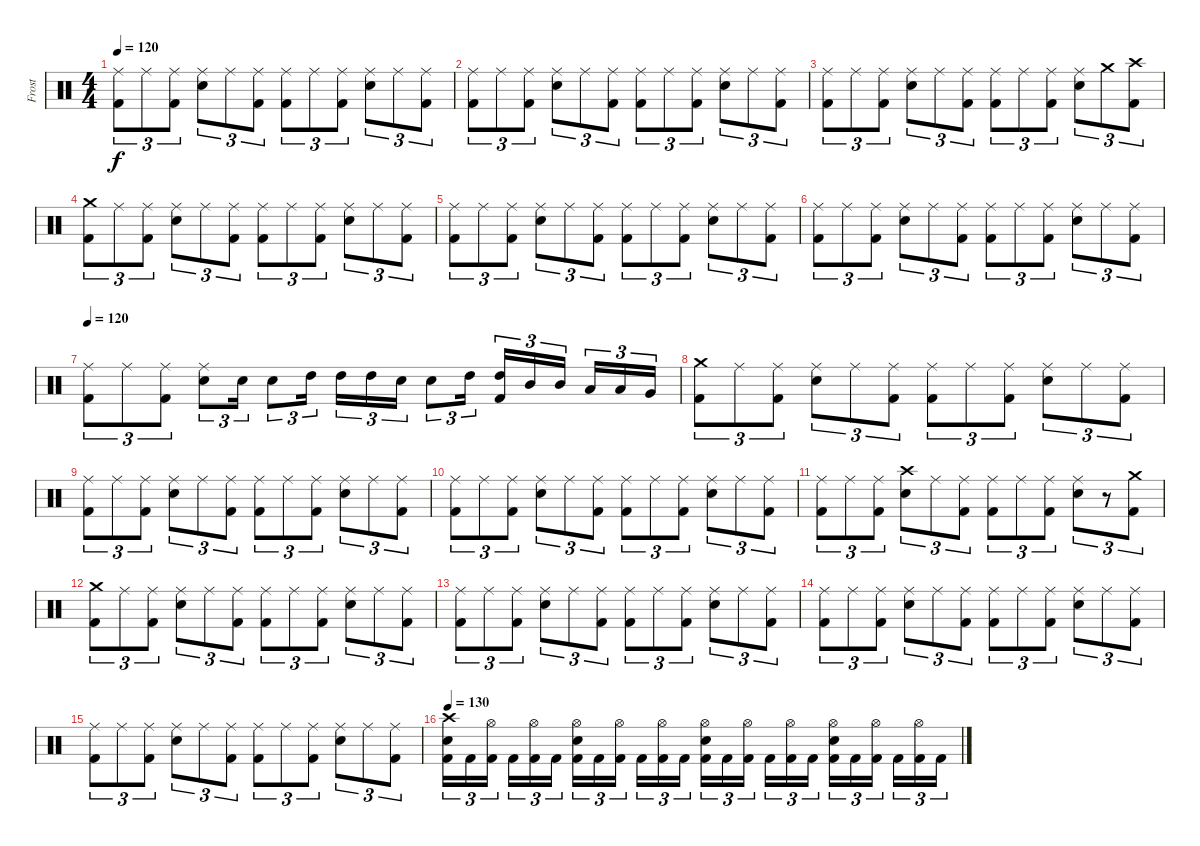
\track ("Frost" "Frost") {instrument percussion}
\staff {score}
\articulation defaults
\ts (4 4)
\tempo 120
\clef neutral
\ks c
("Ride (middle)" "Kick (hit) 2").8{tu (3 2) dy f} "Ride (middle)".8{tu (3 2)} ("Ride (middle)" "Kick (hit) 2").8{tu (3 2)} ("Ride (middle)" "Electric Snare (hit)").8{tu (3 2)} "Ride (middle)".8{tu (3 2)} ("Ride (middle)" "Kick (hit) 2").8{tu (3 2)} ("Ride (middle)" "Kick (hit) 2").8{tu (3 2)} "Ride (middle)".8{tu (3 2)} ("Ride (middle)" "Kick (hit) 2").8{tu (3 2)} ("Ride (middle)" "Electric Snare (hit)").8{tu (3 2)} "Ride (middle)".8{tu (3 2)} ("Ride (middle)" "Kick (hit) 2").8{tu (3 2)} |
("Ride (middle)" "Kick (hit) 2").8{tu (3 2)} "Ride (middle)".8{tu (3 2)} ("Ride (middle)" "Kick (hit) 2").8{tu (3 2)} ("Ride (middle)" "Electric Snare (hit)").8{tu (3 2)} "Ride (middle)".8{tu (3 2)} ("Ride (middle)" "Kick (hit) 2").8{tu (3 2)} ("Ride (middle)" "Kick (hit) 2").8{tu (3 2)} "Ride (middle)".8{tu (3 2)} ("Ride (middle)" "Kick (hit) 2").8{tu (3 2)} ("Ride (middle)" "Electric Snare (hit)").8{tu (3 2)} "Ride (middle)".8{tu (3 2)} ("Ride (middle)" "Kick (hit) 2").8{tu (3 2)} |
("Ride (middle)" "Kick (hit) 2").8{tu (3 2)} "Ride (middle)".8{tu (3 2)} ("Ride (middle)" "Kick (hit) 2").8{tu (3 2)} ("Ride (middle)" "Electric Snare (hit)").8{tu (3 2)} "Ride (middle)".8{tu (3 2)} ("Ride (middle)" "Kick (hit) 2").8{tu (3 2)} ("Ride (middle)" "Kick (hit) 2").8{tu (3 2)} "Ride (middle)".8{tu (3 2)} ("Ride (middle)" "Kick (hit) 2").8{tu (3 2)} ("Ride (middle)" "Electric Snare (hit)").8{tu (3 2)} "Crash medium (hit)".8{tu (3 2)} ("Crash high (hit)" "Kick (hit) 2").8{tu (3 2)} |
("Crash medium (hit)" "Kick (hit) 2").8{tu (3 2)} "Ride (middle)".8{tu (3 2)} ("Ride (middle)" "Kick (hit) 2").8{tu (3 2)} ("Ride (middle)" "Electric Snare (hit)").8{tu (3 2)} "Ride (middle)".8{tu (3 2)} ("Ride (middle)" "Kick (hit) 2").8{tu (3 2)} ("Ride (middle)" "Kick (hit) 2").8{tu (3 2)} "Ride (middle)".8{tu (3 2)} ("Ride (middle)" "Kick (hit) 2").8{tu (3 2)} ("Ride (middle)" "Electric Snare (hit)").8{tu (3 2)} "Ride (middle)".8{tu (3 2)} ("Ride (middle)" "Kick (hit) 2").8{tu (3 2)} |
("Ride (middle)" "Kick (hit) 2").8{tu (3 2)} "Ride (middle)".8{tu (3 2)} ("Ride (middle)" "Kick (hit) 2").8{tu (3 2)} ("Ride (middle)" "Electric Snare (hit)").8{tu (3 2)} "Ride (middle)".8{tu (3 2)} ("Ride (middle)" "Kick (hit) 2").8{tu (3 2)} ("Ride (middle)" "Kick (hit) 2").8{tu (3 2)} "Ride (middle)".8{tu (3 2)} ("Ride (middle)" "Kick (hit) 2").8{tu (3 2)} ("Ride (middle)" "Electric Snare (hit)").8{tu (3 2)} "Ride (middle)".8{tu (3 2)} ("Ride (middle)" "Kick (hit) 2").8{tu (3 2)} |
("Ride (middle)" "Kick (hit) 2").8{tu (3 2)} "Ride (middle)".8{tu (3 2)} ("Ride (middle)" "Kick (hit) 2").8{tu (3 2)} ("Ride (middle)" "Electric Snare (hit)").8{tu (3 2)} "Ride (middle)".8{tu (3 2)} ("Ride (middle)" "Kick (hit) 2").8{tu (3 2)} ("Ride (middle)" "Kick (hit) 2").8{tu (3 2)} "Ride (middle)".8{tu (3 2)} ("Ride (middle)" "Kick (hit) 2").8{tu (3 2)} ("Ride (middle)" "Electric Snare (hit)").8{tu (3 2)} "Ride (middle)".8{tu (3 2)} ("Ride (middle)" "Kick (hit) 2").8{tu (3 2)} |
\tempo 120
("Ride (middle)" "Kick (hit) 2").8{tu (3 2)} "Ride (middle)".8{tu (3 2)} ("Ride (middle)" "Kick (hit) 2").8{tu (3 2)} ("Ride (middle)" "Electric Snare (hit)").8{tu (3 2)} "Electric Snare (hit)".16{tu (3 2)} "Electric Snare (hit)".8{tu (3 2)} "High Tom (hit)".16{tu (3 2)} "High Tom (hit)".16{tu (3 2)} "High Tom (hit)".16{tu (3 2)} "Electric Snare (hit)".16{tu (3 2)} "Electric Snare (hit)".8{tu (3 2)} "High Tom (hit)".16{tu (3 2)} ("High Tom (hit)" "Kick (hit) 2").16{tu (3 2)} "Mid Tom (hit)".16{tu (3 2)} "Mid Tom (hit)".16{tu (3 2)} "Low Tom (hit)".16{tu (3 2)} "Low Tom (hit)".16{tu (3 2)} "Very Low Tom (hit)".16{tu (3 2)} |
("Crash medium (hit)" "Kick (hit) 2").8{tu (3 2)} "Ride (middle)".8{tu (3 2)} ("Ride (middle)" "Kick (hit) 2").8{tu (3 2)} ("Ride (middle)" "Electric Snare (hit)").8{tu (3 2)} "Ride (middle)".8{tu (3 2)} ("Ride (middle)" "Kick (hit) 2").8{tu (3 2)} ("Ride (middle)" "Kick (hit) 2").8{tu (3 2)} "Ride (middle)".8{tu (3 2)} ("Ride (middle)" "Kick (hit) 2").8{tu (3 2)} ("Ride (middle)" "Electric Snare (hit)").8{tu (3 2)} "Ride (middle)".8{tu (3 2)} ("Ride (middle)" "Kick (hit) 2").8{tu (3 2)} |
("Ride (middle)" "Kick (hit) 2").8{tu (3 2)} "Ride (middle)".8{tu (3 2)} ("Ride (middle)" "Kick (hit) 2").8{tu (3 2)} ("Ride (middle)" "Electric Snare (hit)").8{tu (3 2)} "Ride (middle)".8{tu (3 2)} ("Ride (middle)" "Kick (hit) 2").8{tu (3 2)} ("Ride (middle)" "Kick (hit) 2").8{tu (3 2)} "Ride (middle)".8{tu (3 2)} ("Ride (middle)" "Kick (hit) 2").8{tu (3 2)} ("Ride (middle)" "Electric Snare (hit)").8{tu (3 2)} "Ride (middle)".8{tu (3 2)} ("Ride (middle)" "Kick (hit) 2").8{tu (3 2)} |
("Ride (middle)" "Kick (hit) 2").8{tu (3 2)} "Ride (middle)".8{tu (3 2)} ("Ride (middle)" "Kick (hit) 2").8{tu (3 2)} ("Ride (middle)" "Electric Snare (hit)").8{tu (3 2)} "Ride (middle)".8{tu (3 2)} ("Ride (middle)" "Kick (hit) 2").8{tu (3 2)} ("Ride (middle)" "Kick (hit) 2").8{tu (3 2)} "Ride (middle)".8{tu (3 2)} ("Ride (middle)" "Kick (hit) 2").8{tu (3 2)} ("Ride (middle)" "Electric Snare (hit)").8{tu (3 2)} "Ride (middle)".8{tu (3 2)} ("Ride (middle)" "Kick (hit) 2").8{tu (3 2)} |
("Ride (middle)" "Kick (hit) 2").8{tu (3 2)} "Ride (middle)".8{tu (3 2)} ("Ride (middle)" "Kick (hit) 2").8{tu (3 2)} ("Crash high (hit)" "Electric Snare (hit)").8{tu (3 2)} "Ride (middle)".8{tu (3 2)} ("Ride (middle)" "Kick (hit) 2").8{tu (3 2)} ("Ride (middle)" "Kick (hit) 2").8{tu (3 2)} "Ride (middle)".8{tu (3 2)} ("Ride (middle)" "Kick (hit) 2").8{tu (3 2)} ("Ride (middle)" "Electric Snare (hit)").8{tu (3 2)} r.8{tu (3 2)} ("Crash medium (hit)" "Kick (hit) 2").8{tu (3 2)} |
("Crash medium (hit)" "Kick (hit) 2").8{tu (3 2)} "Ride (middle)".8{tu (3 2)} ("Ride (middle)" "Kick (hit) 2").8{tu (3 2)} ("Ride (middle)" "Electric Snare (hit)").8{tu (3 2)} "Ride (middle)".8{tu (3 2)} ("Ride (middle)" "Kick (hit) 2").8{tu (3 2)} ("Ride (middle)" "Kick (hit) 2").8{tu (3 2)} "Ride (middle)".8{tu (3 2)} ("Ride (middle)" "Kick (hit) 2").8{tu (3 2)} ("Ride (middle)" "Electric Snare (hit)").8{tu (3 2)} "Ride (middle)".8{tu (3 2)} ("Ride (middle)" "Kick (hit) 2").8{tu (3 2)} |
("Ride (middle)" "Kick (hit) 2").8{tu (3 2)} "Ride (middle)".8{tu (3 2)} ("Ride (middle)" "Kick (hit) 2").8{tu (3 2)} ("Ride (middle)" "Electric Snare (hit)").8{tu (3 2)} "Ride (middle)".8{tu (3 2)} ("Ride (middle)" "Kick (hit) 2").8{tu (3 2)} ("Ride (middle)" "Kick (hit) 2").8{tu (3 2)} "Ride (middle)".8{tu (3 2)} ("Ride (middle)" "Kick (hit) 2").8{tu (3 2)} ("Ride (middle)" "Electric Snare (hit)").8{tu (3 2)} "Ride (middle)".8{tu (3 2)} ("Ride (middle)" "Kick (hit) 2").8{tu (3 2)} |
("Ride (middle)" "Kick (hit) 2").8{tu (3 2)} "Ride (middle)".8{tu (3 2)} ("Ride (middle)" "Kick (hit) 2").8{tu (3 2)} ("Ride (middle)" "Electric Snare (hit)").8{tu (3 2)} "Ride (middle)".8{tu (3 2)} ("Ride (middle)" "Kick (hit) 2").8{tu (3 2)} ("Ride (middle)" "Kick (hit) 2").8{tu (3 2)} "Ride (middle)".8{tu (3 2)} ("Ride (middle)" "Kick (hit) 2").8{tu (3 2)} ("Ride (middle)" "Electric Snare (hit)").8{tu (3 2)} "Ride (middle)".8{tu (3 2)} ("Ride (middle)" "Kick (hit) 2").8{tu (3 2)} |
("Ride (middle)" "Kick (hit) 2").8{tu (3 2)} "Ride (middle)".8{tu (3 2)} ("Ride (middle)" "Kick (hit) 2").8{tu (3 2)} ("Ride (middle)" "Electric Snare (hit)").8{tu (3 2)} "Ride (middle)".8{tu (3 2)} ("Ride (middle)" "Kick (hit) 2").8{tu (3 2)} ("Ride (middle)" "Kick (hit) 2").8{tu (3 2)} "Ride (middle)".8{tu (3 2)} ("Ride (middle)" "Kick (hit) 2").8{tu (3 2)} ("Ride (middle)" "Electric Snare (hit)").8{tu (3 2)} "Ride (middle)".8{tu (3 2)} ("Ride (middle)" "Kick (hit) 2").8{tu (3 2)} |
\tempo 130
("Crash high (hit)" "Electric Snare (hit)" "Kick (hit) 2").16{tu (3 2)} "Kick (hit) 2".16{tu (3 2)} ("Hi-Hat (open)" "Kick (hit) 2").16{tu (3 2)} "Kick (hit) 2".16{tu (3 2)} ("Hi-Hat (open)" "Kick (hit) 2").16{tu (3 2)} "Kick (hit) 2".16{tu (3 2)} ("Hi-Hat (open)" "Electric Snare (hit)" "Kick (hit) 2").16{tu (3 2)} "Kick (hit) 2".16{tu (3 2)} ("Hi-Hat (open)" "Kick (hit) 2").16{tu (3 2)} "Kick (hit) 2".16{tu (3 2)} ("Hi-Hat (open)" "Kick (hit) 2").16{tu (3 2)} "Kick (hit) 2".16{tu (3 2)} ("Hi-Hat (open)" "Electric Snare (hit)" "Kick (hit) 2").16{tu (3 2)} "Kick (hit) 2".16{tu (3 2)} ("Hi-Hat (open)" "Kick (hit) 2").16{tu (3 2)} "Kick (hit) 2".16{tu (3 2)} ("Hi-Hat (open)" "Kick (hit) 2").16{tu (3 2)} "Kick (hit) 2".16{tu (3 2)} ("Hi-Hat (open)" "Electric Snare (hit)" "Kick (hit) 2").16{tu (3 2)} "Kick (hit) 2".16{tu (3 2)} ("Hi-Hat (open)" "Kick (hit) 2").16{tu (3 2)} "Kick (hit) 2".16{tu (3 2)} ("Hi-Hat (open)" "Kick (hit) 2").16{tu (3 2)} "Kick (hit) 2".16{tu (3 2)}
